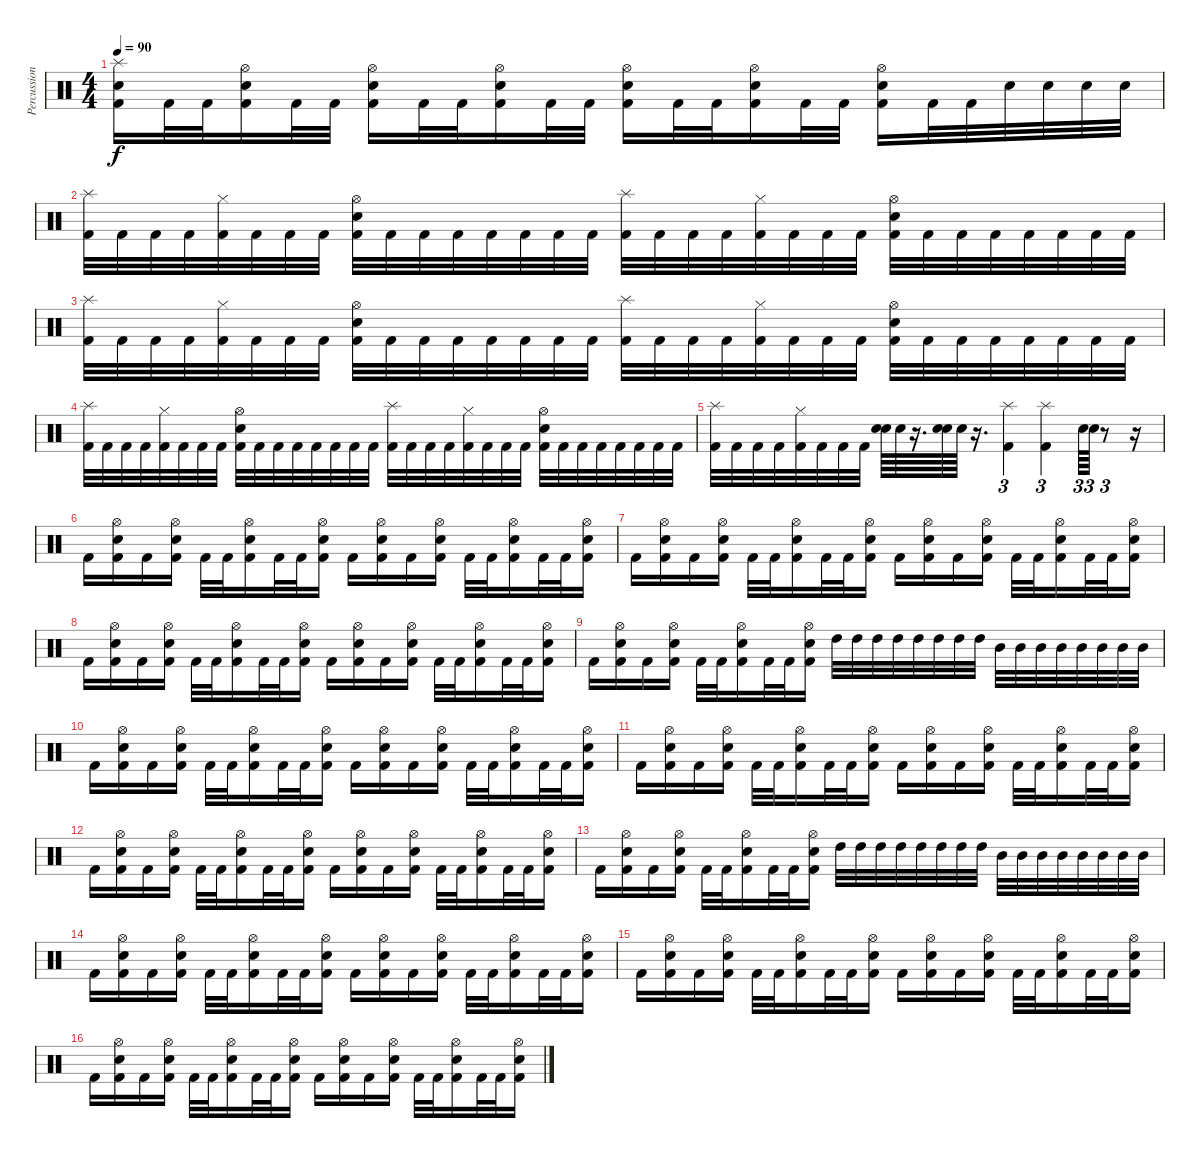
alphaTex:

\track ("Percussions" "Percussion") {instrument percussion}
\staff {score}
\articulation defaults
\ts (4 4)
\tempo 90
\clef neutral
\ks c
("Splash (hit)" "Electric Snare (hit)" "Kick (hit) 2").16{dy f} "Kick (hit) 2".32 "Kick (hit) 2".32 ("Hi-Hat (open)" "Electric Snare (hit)" "Kick (hit) 2").16 "Kick (hit) 2".32 "Kick (hit) 2".32 ("Hi-Hat (open)" "Electric Snare (hit)" "Kick (hit) 2").16 "Kick (hit) 2".32 "Kick (hit) 2".32 ("Hi-Hat (open)" "Electric Snare (hit)" "Kick (hit) 2").16 "Kick (hit) 2".32 "Kick (hit) 2".32 ("Hi-Hat (open)" "Electric Snare (hit)" "Kick (hit) 2").16 "Kick (hit) 2".32 "Kick (hit) 2".32 ("Hi-Hat (open)" "Electric Snare (hit)" "Kick (hit) 2").16 "Kick (hit) 2".32 "Kick (hit) 2".32 ("Hi-Hat (open)" "Electric Snare (hit)" "Kick (hit) 2").16 "Kick (hit) 2".32 "Kick (hit) 2".32 "Electric Snare (hit)".32 "Electric Snare (hit)".32 "Electric Snare (hit)".32 "Electric Snare (hit)".32 |
("Splash (hit)" "Kick (hit) 2").32 "Kick (hit) 2".32 "Kick (hit) 2".32 "Kick (hit) 2".32 ("Hi-Hat (closed)" "Kick (hit) 2").32 "Kick (hit) 2".32 "Kick (hit) 2".32 "Kick (hit) 2".32 ("Hi-Hat (open)" "Electric Snare (hit)" "Kick (hit) 2").32 "Kick (hit) 2".32 "Kick (hit) 2".32 "Kick (hit) 2".32 "Kick (hit) 2".32 "Kick (hit) 2".32 "Kick (hit) 2".32 "Kick (hit) 2".32 ("Splash (hit)" "Kick (hit) 2").32 "Kick (hit) 2".32 "Kick (hit) 2".32 "Kick (hit) 2".32 ("Hi-Hat (closed)" "Kick (hit) 2").32 "Kick (hit) 2".32 "Kick (hit) 2".32 "Kick (hit) 2".32 ("Hi-Hat (open)" "Electric Snare (hit)" "Kick (hit) 2").32 "Kick (hit) 2".32 "Kick (hit) 2".32 "Kick (hit) 2".32 "Kick (hit) 2".32 "Kick (hit) 2".32 "Kick (hit) 2".32 "Kick (hit) 2".32 |
("Splash (hit)" "Kick (hit) 2").32 "Kick (hit) 2".32 "Kick (hit) 2".32 "Kick (hit) 2".32 ("Hi-Hat (closed)" "Kick (hit) 2").32 "Kick (hit) 2".32 "Kick (hit) 2".32 "Kick (hit) 2".32 ("Hi-Hat (open)" "Electric Snare (hit)" "Kick (hit) 2").32 "Kick (hit) 2".32 "Kick (hit) 2".32 "Kick (hit) 2".32 "Kick (hit) 2".32 "Kick (hit) 2".32 "Kick (hit) 2".32 "Kick (hit) 2".32 ("Splash (hit)" "Kick (hit) 2").32 "Kick (hit) 2".32 "Kick (hit) 2".32 "Kick (hit) 2".32 ("Hi-Hat (closed)" "Kick (hit) 2").32 "Kick (hit) 2".32 "Kick (hit) 2".32 "Kick (hit) 2".32 ("Hi-Hat (open)" "Electric Snare (hit)" "Kick (hit) 2").32 "Kick (hit) 2".32 "Kick (hit) 2".32 "Kick (hit) 2".32 "Kick (hit) 2".32 "Kick (hit) 2".32 "Kick (hit) 2".32 "Kick (hit) 2".32 |
("Splash (hit)" "Kick (hit) 2").32 "Kick (hit) 2".32 "Kick (hit) 2".32 "Kick (hit) 2".32 ("Hi-Hat (closed)" "Kick (hit) 2").32 "Kick (hit) 2".32 "Kick (hit) 2".32 "Kick (hit) 2".32 ("Hi-Hat (open)" "Electric Snare (hit)" "Kick (hit) 2").32 "Kick (hit) 2".32 "Kick (hit) 2".32 "Kick (hit) 2".32 "Kick (hit) 2".32 "Kick (hit) 2".32 "Kick (hit) 2".32 "Kick (hit) 2".32 ("Splash (hit)" "Kick (hit) 2").32 "Kick (hit) 2".32 "Kick (hit) 2".32 "Kick (hit) 2".32 ("Hi-Hat (closed)" "Kick (hit) 2").32 "Kick (hit) 2".32 "Kick (hit) 2".32 "Kick (hit) 2".32 ("Hi-Hat (open)" "Electric Snare (hit)" "Kick (hit) 2").32 "Kick (hit) 2".32 "Kick (hit) 2".32 "Kick (hit) 2".32 "Kick (hit) 2".32 "Kick (hit) 2".32 "Kick (hit) 2".32 "Kick (hit) 2".32 |
("Splash (hit)" "Kick (hit) 2").32 "Kick (hit) 2".32 "Kick (hit) 2".32 "Kick (hit) 2".32 ("Hi-Hat (closed)" "Kick (hit) 2").32 "Kick (hit) 2".32 "Kick (hit) 2".32 "Kick (hit) 2".32 ("Electric Snare (hit)" "Electric Snare (hit)").64 "Electric Snare (hit)".64 r.16{d} ("Electric Snare (hit)" "Electric Snare (hit)").64 "Electric Snare (hit)".64 r.16{d} ("Splash (hit)" "Kick (hit) 2").4{tu (3 2)} ("Splash (hit)" "Kick (hit) 2").4{tu (3 2)} "Electric Snare (hit)".64{tu (3 2)} "Electric Snare (hit)".64{tu (3 2)} r.8{tu (3 2)} r.16 |
"Kick (hit) 2".16 ("Hi-Hat (open)" "Electric Snare (hit)" "Kick (hit) 2").16 "Kick (hit) 2".16 ("Hi-Hat (open)" "Electric Snare (hit)" "Kick (hit) 2").16 "Kick (hit) 2".32 "Kick (hit) 2".32 ("Hi-Hat (open)" "Electric Snare (hit)" "Kick (hit) 2").16 "Kick (hit) 2".32 "Kick (hit) 2".32 ("Hi-Hat (open)" "Electric Snare (hit)" "Kick (hit) 2").16 "Kick (hit) 2".16 ("Hi-Hat (open)" "Electric Snare (hit)" "Kick (hit) 2").16 "Kick (hit) 2".16 ("Hi-Hat (open)" "Electric Snare (hit)" "Kick (hit) 2").16 "Kick (hit) 2".32 "Kick (hit) 2".32 ("Hi-Hat (open)" "Electric Snare (hit)" "Kick (hit) 2").16 "Kick (hit) 2".32 "Kick (hit) 2".32 ("Hi-Hat (open)" "Electric Snare (hit)" "Kick (hit) 2").16 |
"Kick (hit) 2".16 ("Hi-Hat (open)" "Electric Snare (hit)" "Kick (hit) 2").16 "Kick (hit) 2".16 ("Hi-Hat (open)" "Electric Snare (hit)" "Kick (hit) 2").16 "Kick (hit) 2".32 "Kick (hit) 2".32 ("Hi-Hat (open)" "Electric Snare (hit)" "Kick (hit) 2").16 "Kick (hit) 2".32 "Kick (hit) 2".32 ("Hi-Hat (open)" "Electric Snare (hit)" "Kick (hit) 2").16 "Kick (hit) 2".16 ("Hi-Hat (open)" "Electric Snare (hit)" "Kick (hit) 2").16 "Kick (hit) 2".16 ("Hi-Hat (open)" "Electric Snare (hit)" "Kick (hit) 2").16 "Kick (hit) 2".32 "Kick (hit) 2".32 ("Hi-Hat (open)" "Electric Snare (hit)" "Kick (hit) 2").16 "Kick (hit) 2".32 "Kick (hit) 2".32 ("Hi-Hat (open)" "Electric Snare (hit)" "Kick (hit) 2").16 |
"Kick (hit) 2".16 ("Hi-Hat (open)" "Electric Snare (hit)" "Kick (hit) 2").16 "Kick (hit) 2".16 ("Hi-Hat (open)" "Electric Snare (hit)" "Kick (hit) 2").16 "Kick (hit) 2".32 "Kick (hit) 2".32 ("Hi-Hat (open)" "Electric Snare (hit)" "Kick (hit) 2").16 "Kick (hit) 2".32 "Kick (hit) 2".32 ("Hi-Hat (open)" "Electric Snare (hit)" "Kick (hit) 2").16 "Kick (hit) 2".16 ("Hi-Hat (open)" "Electric Snare (hit)" "Kick (hit) 2").16 "Kick (hit) 2".16 ("Hi-Hat (open)" "Electric Snare (hit)" "Kick (hit) 2").16 "Kick (hit) 2".32 "Kick (hit) 2".32 ("Hi-Hat (open)" "Electric Snare (hit)" "Kick (hit) 2").16 "Kick (hit) 2".32 "Kick (hit) 2".32 ("Hi-Hat (open)" "Electric Snare (hit)" "Kick (hit) 2").16 |
"Kick (hit) 2".16 ("Hi-Hat (open)" "Electric Snare (hit)" "Kick (hit) 2").16 "Kick (hit) 2".16 ("Hi-Hat (open)" "Electric Snare (hit)" "Kick (hit) 2").16 "Kick (hit) 2".32 "Kick (hit) 2".32 ("Hi-Hat (open)" "Electric Snare (hit)" "Kick (hit) 2").16 "Kick (hit) 2".32 "Kick (hit) 2".32 ("Hi-Hat (open)" "Electric Snare (hit)" "Kick (hit) 2").16 "High Tom (hit)".32 "High Tom (hit)".32 "High Tom (hit)".32 "High Tom (hit)".32 "High Tom (hit)".32 "High Tom (hit)".32 "High Tom (hit)".32 "High Tom (hit)".32 "Mid Tom (hit)".32 "Mid Tom (hit)".32 "Mid Tom (hit)".32 "Mid Tom (hit)".32 "Mid Tom (hit)".32 "Mid Tom (hit)".32 "Mid Tom (hit)".32 "Mid Tom (hit)".32 |
"Kick (hit) 2".16 ("Hi-Hat (open)" "Electric Snare (hit)" "Kick (hit) 2").16 "Kick (hit) 2".16 ("Hi-Hat (open)" "Electric Snare (hit)" "Kick (hit) 2").16 "Kick (hit) 2".32 "Kick (hit) 2".32 ("Hi-Hat (open)" "Electric Snare (hit)" "Kick (hit) 2").16 "Kick (hit) 2".32 "Kick (hit) 2".32 ("Hi-Hat (open)" "Electric Snare (hit)" "Kick (hit) 2").16 "Kick (hit) 2".16 ("Hi-Hat (open)" "Electric Snare (hit)" "Kick (hit) 2").16 "Kick (hit) 2".16 ("Hi-Hat (open)" "Electric Snare (hit)" "Kick (hit) 2").16 "Kick (hit) 2".32 "Kick (hit) 2".32 ("Hi-Hat (open)" "Electric Snare (hit)" "Kick (hit) 2").16 "Kick (hit) 2".32 "Kick (hit) 2".32 ("Hi-Hat (open)" "Electric Snare (hit)" "Kick (hit) 2").16 |
"Kick (hit) 2".16 ("Hi-Hat (open)" "Electric Snare (hit)" "Kick (hit) 2").16 "Kick (hit) 2".16 ("Hi-Hat (open)" "Electric Snare (hit)" "Kick (hit) 2").16 "Kick (hit) 2".32 "Kick (hit) 2".32 ("Hi-Hat (open)" "Electric Snare (hit)" "Kick (hit) 2").16 "Kick (hit) 2".32 "Kick (hit) 2".32 ("Hi-Hat (open)" "Electric Snare (hit)" "Kick (hit) 2").16 "Kick (hit) 2".16 ("Hi-Hat (open)" "Electric Snare (hit)" "Kick (hit) 2").16 "Kick (hit) 2".16 ("Hi-Hat (open)" "Electric Snare (hit)" "Kick (hit) 2").16 "Kick (hit) 2".32 "Kick (hit) 2".32 ("Hi-Hat (open)" "Electric Snare (hit)" "Kick (hit) 2").16 "Kick (hit) 2".32 "Kick (hit) 2".32 ("Hi-Hat (open)" "Electric Snare (hit)" "Kick (hit) 2").16 |
"Kick (hit) 2".16 ("Hi-Hat (open)" "Electric Snare (hit)" "Kick (hit) 2").16 "Kick (hit) 2".16 ("Hi-Hat (open)" "Electric Snare (hit)" "Kick (hit) 2").16 "Kick (hit) 2".32 "Kick (hit) 2".32 ("Hi-Hat (open)" "Electric Snare (hit)" "Kick (hit) 2").16 "Kick (hit) 2".32 "Kick (hit) 2".32 ("Hi-Hat (open)" "Electric Snare (hit)" "Kick (hit) 2").16 "Kick (hit) 2".16 ("Hi-Hat (open)" "Electric Snare (hit)" "Kick (hit) 2").16 "Kick (hit) 2".16 ("Hi-Hat (open)" "Electric Snare (hit)" "Kick (hit) 2").16 "Kick (hit) 2".32 "Kick (hit) 2".32 ("Hi-Hat (open)" "Electric Snare (hit)" "Kick (hit) 2").16 "Kick (hit) 2".32 "Kick (hit) 2".32 ("Hi-Hat (open)" "Electric Snare (hit)" "Kick (hit) 2").16 |
"Kick (hit) 2".16 ("Hi-Hat (open)" "Electric Snare (hit)" "Kick (hit) 2").16 "Kick (hit) 2".16 ("Hi-Hat (open)" "Electric Snare (hit)" "Kick (hit) 2").16 "Kick (hit) 2".32 "Kick (hit) 2".32 ("Hi-Hat (open)" "Electric Snare (hit)" "Kick (hit) 2").16 "Kick (hit) 2".32 "Kick (hit) 2".32 ("Hi-Hat (open)" "Electric Snare (hit)" "Kick (hit) 2").16 "High Tom (hit)".32 "High Tom (hit)".32 "High Tom (hit)".32 "High Tom (hit)".32 "High Tom (hit)".32 "High Tom (hit)".32 "High Tom (hit)".32 "High Tom (hit)".32 "Mid Tom (hit)".32 "Mid Tom (hit)".32 "Mid Tom (hit)".32 "Mid Tom (hit)".32 "Mid Tom (hit)".32 "Mid Tom (hit)".32 "Mid Tom (hit)".32 "Mid Tom (hit)".32 |
"Kick (hit) 2".16 ("Hi-Hat (open)" "Electric Snare (hit)" "Kick (hit) 2").16 "Kick (hit) 2".16 ("Hi-Hat (open)" "Electric Snare (hit)" "Kick (hit) 2").16 "Kick (hit) 2".32 "Kick (hit) 2".32 ("Hi-Hat (open)" "Electric Snare (hit)" "Kick (hit) 2").16 "Kick (hit) 2".32 "Kick (hit) 2".32 ("Hi-Hat (open)" "Electric Snare (hit)" "Kick (hit) 2").16 "Kick (hit) 2".16 ("Hi-Hat (open)" "Electric Snare (hit)" "Kick (hit) 2").16 "Kick (hit) 2".16 ("Hi-Hat (open)" "Electric Snare (hit)" "Kick (hit) 2").16 "Kick (hit) 2".32 "Kick (hit) 2".32 ("Hi-Hat (open)" "Electric Snare (hit)" "Kick (hit) 2").16 "Kick (hit) 2".32 "Kick (hit) 2".32 ("Hi-Hat (open)" "Electric Snare (hit)" "Kick (hit) 2").16 |
"Kick (hit) 2".16 ("Hi-Hat (open)" "Electric Snare (hit)" "Kick (hit) 2").16 "Kick (hit) 2".16 ("Hi-Hat (open)" "Electric Snare (hit)" "Kick (hit) 2").16 "Kick (hit) 2".32 "Kick (hit) 2".32 ("Hi-Hat (open)" "Electric Snare (hit)" "Kick (hit) 2").16 "Kick (hit) 2".32 "Kick (hit) 2".32 ("Hi-Hat (open)" "Electric Snare (hit)" "Kick (hit) 2").16 "Kick (hit) 2".16 ("Hi-Hat (open)" "Electric Snare (hit)" "Kick (hit) 2").16 "Kick (hit) 2".16 ("Hi-Hat (open)" "Electric Snare (hit)" "Kick (hit) 2").16 "Kick (hit) 2".32 "Kick (hit) 2".32 ("Hi-Hat (open)" "Electric Snare (hit)" "Kick (hit) 2").16 "Kick (hit) 2".32 "Kick (hit) 2".32 ("Hi-Hat (open)" "Electric Snare (hit)" "Kick (hit) 2").16 |
"Kick (hit) 2".16 ("Hi-Hat (open)" "Electric Snare (hit)" "Kick (hit) 2").16 "Kick (hit) 2".16 ("Hi-Hat (open)" "Electric Snare (hit)" "Kick (hit) 2").16 "Kick (hit) 2".32 "Kick (hit) 2".32 ("Hi-Hat (open)" "Electric Snare (hit)" "Kick (hit) 2").16 "Kick (hit) 2".32 "Kick (hit) 2".32 ("Hi-Hat (open)" "Electric Snare (hit)" "Kick (hit) 2").16 "Kick (hit) 2".16 ("Hi-Hat (open)" "Electric Snare (hit)" "Kick (hit) 2").16 "Kick (hit) 2".16 ("Hi-Hat (open)" "Electric Snare (hit)" "Kick (hit) 2").16 "Kick (hit) 2".32 "Kick (hit) 2".32 ("Hi-Hat (open)" "Electric Snare (hit)" "Kick (hit) 2").16 "Kick (hit) 2".32 "Kick (hit) 2".32 ("Hi-Hat (open)" "Electric Snare (hit)" "Kick (hit) 2").16
